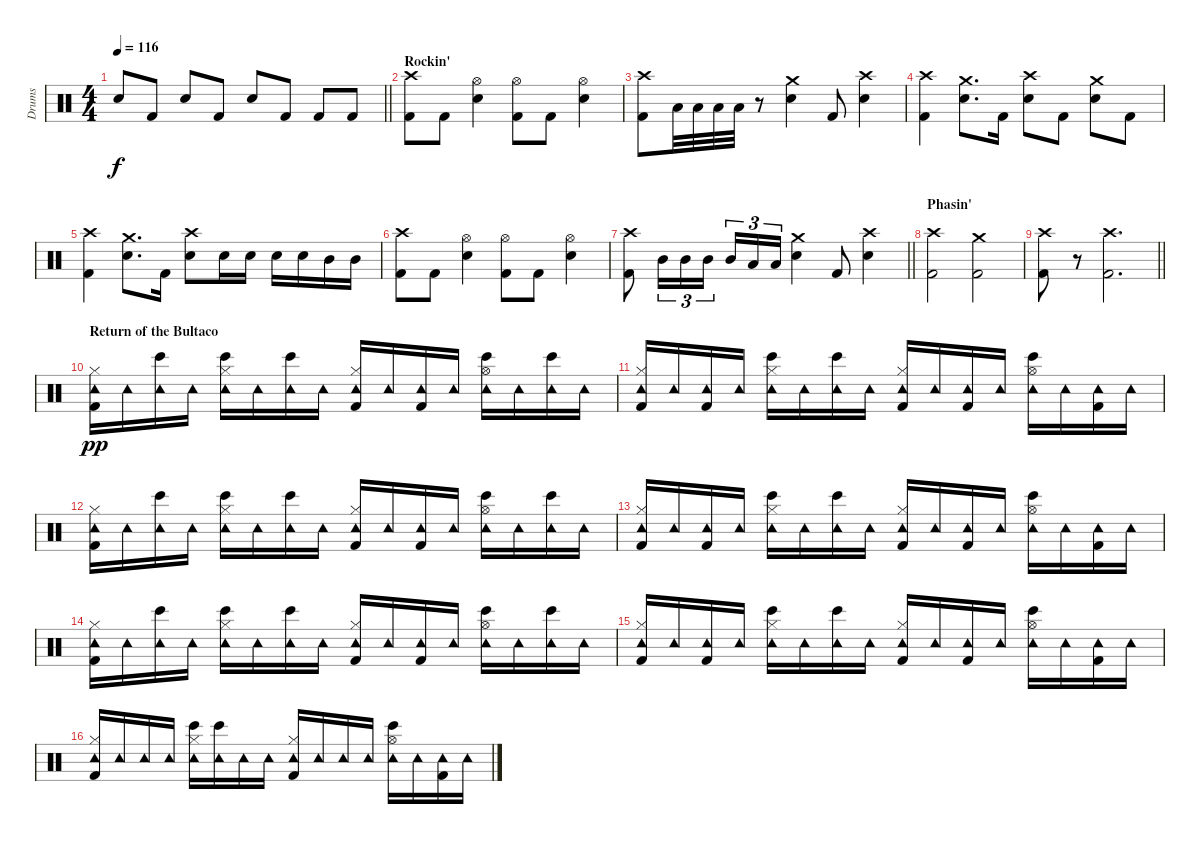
\track ("Drums" "Drums") {instrument percussion}
\staff {score}
\articulation defaults
\ts (4 4)
\tempo 116
\clef neutral
\barLineRight lightlight
\ks c "Electric Snare (hit)".8{dy f} "Kick (hit) 2".8 "Electric Snare (hit)".8 "Kick (hit) 2".8 "Electric Snare (hit)".8 "Kick (hit) 2".8 "Kick (hit) 2".8 "Kick (hit) 2".8
|
\section ("" "Rockin'")
("Crash high (hit)" "Kick (hit) 2").8 "Kick (hit) 2".8 ("Hi-Hat (open)" "Electric Snare (hit)").4 ("Hi-Hat (open)" "Kick (hit) 2").8 "Kick (hit) 2".8 ("Hi-Hat (open)" "Electric Snare (hit)").4 |
("Crash high (hit)" "Kick (hit) 2").8 "Low Tom (hit)".32 "Low Tom (hit)".32 "Low Tom (hit)".32 "Low Tom (hit)".32 r.8 ("Crash medium (hit)" "Electric Snare (hit)").4 "Kick (hit) 2".8 ("Crash high (hit)" "Electric Snare (hit)").4 |
("Crash high (hit)" "Kick (hit) 2").4 ("Crash medium (hit)" "Electric Snare (hit)").8{d} "Kick (hit) 2".16 ("Crash high (hit)" "Electric Snare (hit)").8 "Kick (hit) 2".8 ("Crash medium (hit)" "Electric Snare (hit)").8 "Kick (hit) 2".8 |
("Crash high (hit)" "Kick (hit) 2").4 ("Crash medium (hit)" "Electric Snare (hit)").8{d} "Kick (hit) 2".16 ("Crash high (hit)" "Electric Snare (hit)").8 "Electric Snare (hit)".16 "Electric Snare (hit)".16 "Electric Snare (hit)".16 "Electric Snare (hit)".16 "Mid Tom (hit)".16 "Mid Tom (hit)".16 |
("Crash high (hit)" "Kick (hit) 2").8 "Kick (hit) 2".8 ("Hi-Hat (open)" "Electric Snare (hit)").4 ("Hi-Hat (open)" "Kick (hit) 2").8 "Kick (hit) 2".8 ("Hi-Hat (open)" "Electric Snare (hit)").4 |
\barLineRight lightlight
("Crash high (hit)" "Kick (hit) 2").8 "Mid Tom (hit)".16{tu (3 2)} "Mid Tom (hit)".16{tu (3 2)} "Mid Tom (hit)".16{tu (3 2)} "Mid Tom (hit)".16{tu (3 2)} "Low Tom (hit)".16{tu (3 2)} "Low Tom (hit)".16{tu (3 2)} ("Crash medium (hit)" "Electric Snare (hit)").4 "Kick (hit) 2".8 ("Crash high (hit)" "Electric Snare (hit)").4 |
\section ("" "Phasin'")
("Kick (hit) 2" "Crash high (hit)").2 ("Kick (hit) 2" "Crash medium (hit)").2 |
\barLineRight lightlight
("Kick (hit) 2" "Crash high (hit)").8 r.8 ("Kick (hit) 2" "Crash high (hit)").2{d} |
\section ("" "Return of the Bultaco")
("Hi-Hat (closed)" "Kick (hit) 2" "Tambourine (hit)").16{dy pp volume 10} "Tambourine (hit)".16 ("Bongo High (hit)" "Tambourine (hit)").16 "Tambourine (hit)".16 ("Hi-Hat (closed)" "Bongo High (hit)" "Tambourine (hit)").16 "Tambourine (hit)".16 ("Bongo High (hit)" "Tambourine (hit)").16 "Tambourine (hit)".16 ("Hi-Hat (closed)" "Kick (hit) 2" "Tambourine (hit)").16 "Tambourine (hit)".16 ("Kick (hit) 2" "Tambourine (hit)").16 "Tambourine (hit)".16 ("Hi-Hat (open)" "Bongo High (hit)" "Tambourine (hit)").16 "Tambourine (hit)".16 ("Bongo High (hit)" "Tambourine (hit)").16 "Tambourine (hit)".16 |
("Hi-Hat (closed)" "Kick (hit) 2" "Tambourine (hit)").16 "Tambourine (hit)".16 ("Kick (hit) 2" "Tambourine (hit)").16 "Tambourine (hit)".16 ("Hi-Hat (closed)" "Bongo High (hit)" "Tambourine (hit)").16 "Tambourine (hit)".16 ("Bongo High (hit)" "Tambourine (hit)").16 "Tambourine (hit)".16 ("Hi-Hat (closed)" "Kick (hit) 2" "Tambourine (hit)").16 "Tambourine (hit)".16 ("Kick (hit) 2" "Tambourine (hit)").16 "Tambourine (hit)".16 ("Hi-Hat (open)" "Bongo High (hit)" "Tambourine (hit)").16 "Tambourine (hit)".16 ("Kick (hit) 2" "Tambourine (hit)").16 "Tambourine (hit)".16 |
("Hi-Hat (closed)" "Kick (hit) 2" "Tambourine (hit)").16 "Tambourine (hit)".16 ("Bongo High (hit)" "Tambourine (hit)").16 "Tambourine (hit)".16 ("Hi-Hat (closed)" "Bongo High (hit)" "Tambourine (hit)").16 "Tambourine (hit)".16 ("Bongo High (hit)" "Tambourine (hit)").16 "Tambourine (hit)".16 ("Hi-Hat (closed)" "Kick (hit) 2" "Tambourine (hit)").16 "Tambourine (hit)".16 ("Kick (hit) 2" "Tambourine (hit)").16 "Tambourine (hit)".16 ("Hi-Hat (open)" "Bongo High (hit)" "Tambourine (hit)").16 "Tambourine (hit)".16 ("Bongo High (hit)" "Tambourine (hit)").16 "Tambourine (hit)".16 |
("Hi-Hat (closed)" "Kick (hit) 2" "Tambourine (hit)").16 "Tambourine (hit)".16 ("Kick (hit) 2" "Tambourine (hit)").16 "Tambourine (hit)".16 ("Hi-Hat (closed)" "Bongo High (hit)" "Tambourine (hit)").16 "Tambourine (hit)".16 ("Bongo High (hit)" "Tambourine (hit)").16 "Tambourine (hit)".16 ("Hi-Hat (closed)" "Kick (hit) 2" "Tambourine (hit)").16 "Tambourine (hit)".16 ("Kick (hit) 2" "Tambourine (hit)").16 "Tambourine (hit)".16 ("Hi-Hat (open)" "Bongo High (hit)" "Tambourine (hit)").16 "Tambourine (hit)".16 ("Kick (hit) 2" "Tambourine (hit)").16 "Tambourine (hit)".16 |
("Hi-Hat (closed)" "Kick (hit) 2" "Tambourine (hit)").16{volume 10} "Tambourine (hit)".16 ("Bongo High (hit)" "Tambourine (hit)").16 "Tambourine (hit)".16 ("Hi-Hat (closed)" "Bongo High (hit)" "Tambourine (hit)").16 "Tambourine (hit)".16 ("Bongo High (hit)" "Tambourine (hit)").16 "Tambourine (hit)".16 ("Hi-Hat (closed)" "Kick (hit) 2" "Tambourine (hit)").16 "Tambourine (hit)".16 ("Kick (hit) 2" "Tambourine (hit)").16 "Tambourine (hit)".16 ("Hi-Hat (open)" "Bongo High (hit)" "Tambourine (hit)").16 "Tambourine (hit)".16 ("Bongo High (hit)" "Tambourine (hit)").16 "Tambourine (hit)".16 |
("Hi-Hat (closed)" "Kick (hit) 2" "Tambourine (hit)").16 "Tambourine (hit)".16 ("Kick (hit) 2" "Tambourine (hit)").16 "Tambourine (hit)".16 ("Hi-Hat (closed)" "Bongo High (hit)" "Tambourine (hit)").16 "Tambourine (hit)".16 ("Bongo High (hit)" "Tambourine (hit)").16 "Tambourine (hit)".16 ("Hi-Hat (closed)" "Kick (hit) 2" "Tambourine (hit)").16 "Tambourine (hit)".16 ("Kick (hit) 2" "Tambourine (hit)").16 "Tambourine (hit)".16 ("Hi-Hat (open)" "Bongo High (hit)" "Tambourine (hit)").16 "Tambourine (hit)".16 ("Kick (hit) 2" "Tambourine (hit)").16 "Tambourine (hit)".16 |
("Hi-Hat (closed)" "Kick (hit) 2" "Tambourine (hit)").16 "Tambourine (hit)".16 "Tambourine (hit)".16 "Tambourine (hit)".16 ("Hi-Hat (closed)" "Bongo High (hit)" "Tambourine (hit)").16 ("Bongo High (hit)" "Tambourine (hit)").16 "Tambourine (hit)".16 "Tambourine (hit)".16 ("Hi-Hat (closed)" "Kick (hit) 2" "Tambourine (hit)").16 "Tambourine (hit)".16 "Tambourine (hit)".16 "Tambourine (hit)".16 ("Hi-Hat (open)" "Bongo High (hit)" "Tambourine (hit)").16 "Tambourine (hit)".16 ("Kick (hit) 2" "Tambourine (hit)").16 "Tambourine (hit)".16
